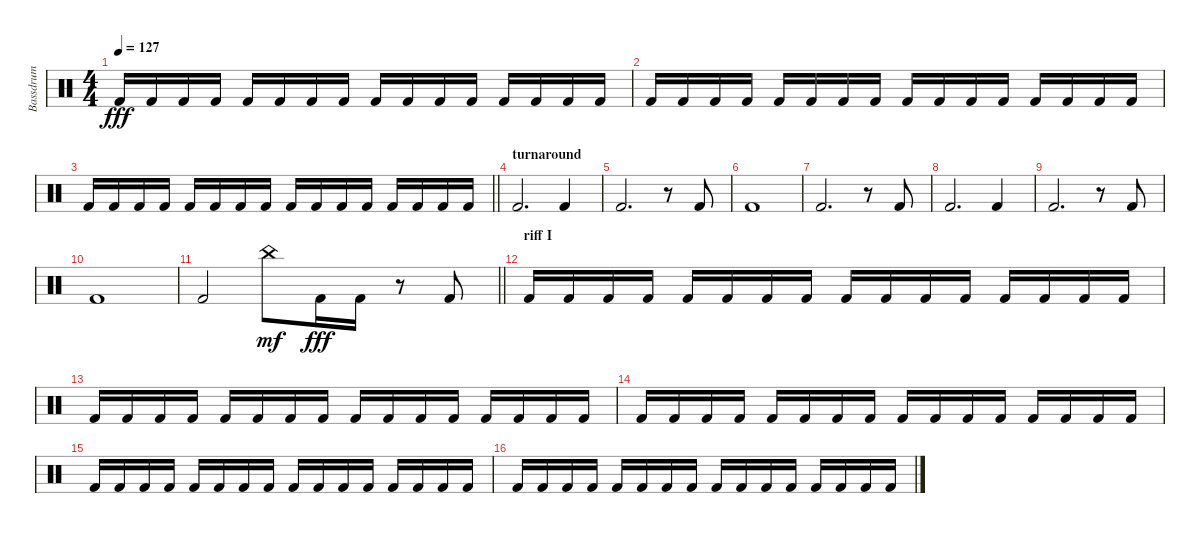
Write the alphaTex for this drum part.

\track ("Bassdrum" "Bassdrum") {instrument percussion}
\staff {score}
\articulation defaults
\ts (4 4)
\tempo 127
\clef neutral
\ks c "Kick (hit) 2".16{dy fff} "Kick (hit) 2".16 "Kick (hit) 2".16 "Kick (hit) 2".16 "Kick (hit) 2".16 "Kick (hit) 2".16 "Kick (hit) 2".16 "Kick (hit) 2".16 "Kick (hit) 2".16 "Kick (hit) 2".16 "Kick (hit) 2".16 "Kick (hit) 2".16 "Kick (hit) 2".16 "Kick (hit) 2".16 "Kick (hit) 2".16 "Kick (hit) 2".16
|
"Kick (hit) 2".16 "Kick (hit) 2".16 "Kick (hit) 2".16 "Kick (hit) 2".16 "Kick (hit) 2".16 "Kick (hit) 2".16 "Kick (hit) 2".16 "Kick (hit) 2".16 "Kick (hit) 2".16 "Kick (hit) 2".16 "Kick (hit) 2".16 "Kick (hit) 2".16 "Kick (hit) 2".16 "Kick (hit) 2".16 "Kick (hit) 2".16 "Kick (hit) 2".16 |
\barLineRight lightlight "Kick (hit) 2".16 "Kick (hit) 2".16 "Kick (hit) 2".16 "Kick (hit) 2".16 "Kick (hit) 2".16 "Kick (hit) 2".16 "Kick (hit) 2".16 "Kick (hit) 2".16 "Kick (hit) 2".16 "Kick (hit) 2".16 "Kick (hit) 2".16 "Kick (hit) 2".16 "Kick (hit) 2".16 "Kick (hit) 2".16 "Kick (hit) 2".16 "Kick (hit) 2".16
|
\section ("" "turnaround")
"Kick (hit) 2".2{d} "Kick (hit) 2".4 |
"Kick (hit) 2".2{d} r.8 "Kick (hit) 2".8 |
"Kick (hit) 2".1 |
"Kick (hit) 2".2{d} r.8 "Kick (hit) 2".8 |
"Kick (hit) 2".2{d} "Kick (hit) 2".4 |
"Kick (hit) 2".2{d} r.8 "Kick (hit) 2".8 |
"Kick (hit) 2".1 |
\barLineRight lightlight "Kick (hit) 2".2 "China (hit)".8{dy mf} "Kick (hit) 2".16{dy fff} "Kick (hit) 2".16
r.8 "Kick (hit) 2".8 |
\section ("" "riff I")
"Kick (hit) 2".16 "Kick (hit) 2".16 "Kick (hit) 2".16 "Kick (hit) 2".16 "Kick (hit) 2".16 "Kick (hit) 2".16 "Kick (hit) 2".16 "Kick (hit) 2".16 "Kick (hit) 2".16 "Kick (hit) 2".16 "Kick (hit) 2".16 "Kick (hit) 2".16 "Kick (hit) 2".16 "Kick (hit) 2".16 "Kick (hit) 2".16 "Kick (hit) 2".16 |
"Kick (hit) 2".16 "Kick (hit) 2".16 "Kick (hit) 2".16 "Kick (hit) 2".16 "Kick (hit) 2".16 "Kick (hit) 2".16 "Kick (hit) 2".16 "Kick (hit) 2".16 "Kick (hit) 2".16 "Kick (hit) 2".16 "Kick (hit) 2".16 "Kick (hit) 2".16 "Kick (hit) 2".16 "Kick (hit) 2".16 "Kick (hit) 2".16 "Kick (hit) 2".16 |
"Kick (hit) 2".16 "Kick (hit) 2".16 "Kick (hit) 2".16 "Kick (hit) 2".16 "Kick (hit) 2".16 "Kick (hit) 2".16 "Kick (hit) 2".16 "Kick (hit) 2".16 "Kick (hit) 2".16 "Kick (hit) 2".16 "Kick (hit) 2".16 "Kick (hit) 2".16 "Kick (hit) 2".16 "Kick (hit) 2".16 "Kick (hit) 2".16 "Kick (hit) 2".16 |
"Kick (hit) 2".16 "Kick (hit) 2".16 "Kick (hit) 2".16 "Kick (hit) 2".16 "Kick (hit) 2".16 "Kick (hit) 2".16 "Kick (hit) 2".16 "Kick (hit) 2".16 "Kick (hit) 2".16 "Kick (hit) 2".16 "Kick (hit) 2".16 "Kick (hit) 2".16 "Kick (hit) 2".16 "Kick (hit) 2".16 "Kick (hit) 2".16 "Kick (hit) 2".16 |
"Kick (hit) 2".16 "Kick (hit) 2".16 "Kick (hit) 2".16 "Kick (hit) 2".16 "Kick (hit) 2".16 "Kick (hit) 2".16 "Kick (hit) 2".16 "Kick (hit) 2".16 "Kick (hit) 2".16 "Kick (hit) 2".16 "Kick (hit) 2".16 "Kick (hit) 2".16 "Kick (hit) 2".16 "Kick (hit) 2".16 "Kick (hit) 2".16 "Kick (hit) 2".16
